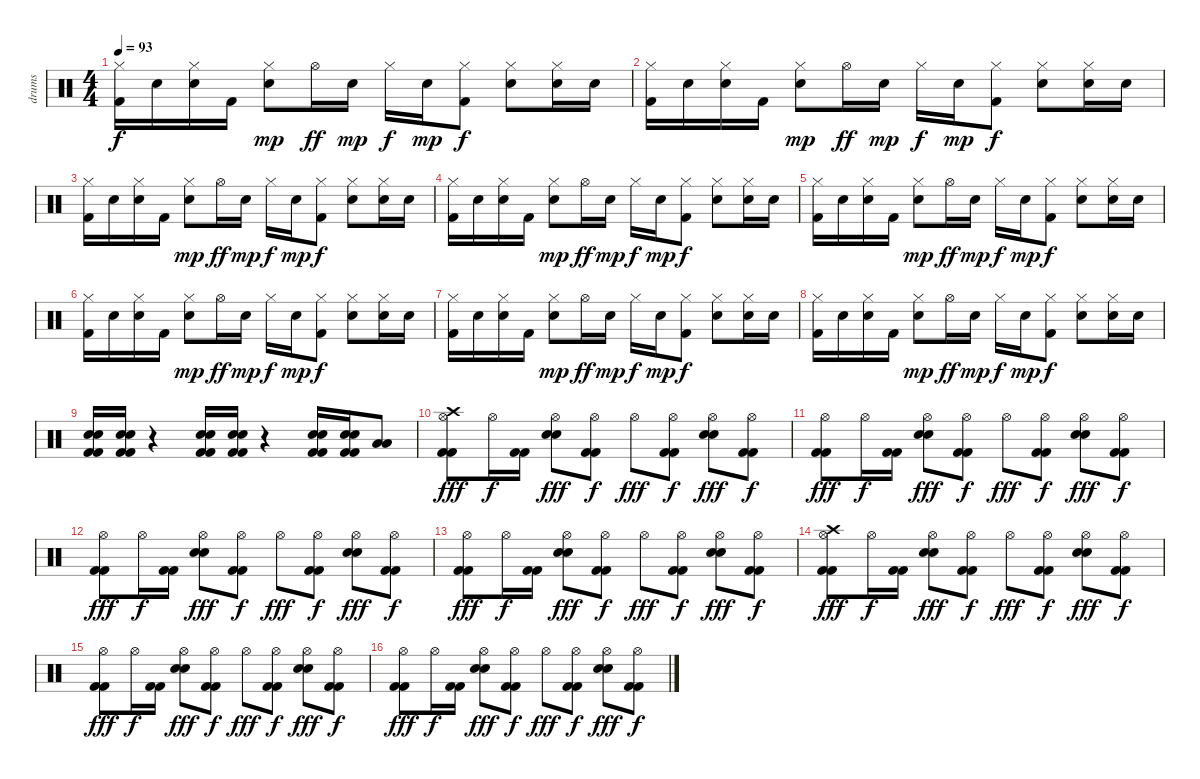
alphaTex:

\track ("drums" "drums") {instrument percussion}
\staff {score}
\articulation defaults
\ts (4 4)
\tempo 93
\clef neutral
\ks c
("Hi-Hat (closed)" "Kick (hit) 2").16{dy f} "Electric Snare (hit)".16 ("Hi-Hat (closed)" "Electric Snare (hit)").16 "Kick (hit) 2".16 ("Hi-Hat (closed)" "Electric Snare (hit)").8{dy mp} "Hi-Hat (open)".16{dy ff} "Electric Snare (hit)".16{dy mp} "Hi-Hat (closed)".16{dy f} "Electric Snare (hit)".16{dy mp} ("Hi-Hat (closed)" "Kick (hit) 2").8{dy f} ("Hi-Hat (closed)" "Electric Snare (hit)").8 ("Hi-Hat (closed)" "Electric Snare (hit)").16 "Electric Snare (hit)".16 |
("Hi-Hat (closed)" "Kick (hit) 2").16 "Electric Snare (hit)".16 ("Hi-Hat (closed)" "Electric Snare (hit)").16 "Kick (hit) 2".16 ("Hi-Hat (closed)" "Electric Snare (hit)").8{dy mp} "Hi-Hat (open)".16{dy ff} "Electric Snare (hit)".16{dy mp} "Hi-Hat (closed)".16{dy f} "Electric Snare (hit)".16{dy mp} ("Hi-Hat (closed)" "Kick (hit) 2").8{dy f} ("Hi-Hat (closed)" "Electric Snare (hit)").8 ("Hi-Hat (closed)" "Electric Snare (hit)").16 "Electric Snare (hit)".16 |
("Hi-Hat (closed)" "Kick (hit) 2").16 "Electric Snare (hit)".16 ("Hi-Hat (closed)" "Electric Snare (hit)").16 "Kick (hit) 2".16 ("Hi-Hat (closed)" "Electric Snare (hit)").8{dy mp} "Hi-Hat (open)".16{dy ff} "Electric Snare (hit)".16{dy mp} "Hi-Hat (closed)".16{dy f} "Electric Snare (hit)".16{dy mp} ("Hi-Hat (closed)" "Kick (hit) 2").8{dy f} ("Hi-Hat (closed)" "Electric Snare (hit)").8 ("Hi-Hat (closed)" "Electric Snare (hit)").16 "Electric Snare (hit)".16 |
("Hi-Hat (closed)" "Kick (hit) 2").16 "Electric Snare (hit)".16 ("Hi-Hat (closed)" "Electric Snare (hit)").16 "Kick (hit) 2".16 ("Hi-Hat (closed)" "Electric Snare (hit)").8{dy mp} "Hi-Hat (open)".16{dy ff} "Electric Snare (hit)".16{dy mp} "Hi-Hat (closed)".16{dy f} "Electric Snare (hit)".16{dy mp} ("Hi-Hat (closed)" "Kick (hit) 2").8{dy f} ("Hi-Hat (closed)" "Electric Snare (hit)").8 ("Hi-Hat (closed)" "Electric Snare (hit)").16 "Electric Snare (hit)".16 |
("Hi-Hat (closed)" "Kick (hit) 2").16 "Electric Snare (hit)".16 ("Hi-Hat (closed)" "Electric Snare (hit)").16 "Kick (hit) 2".16 ("Hi-Hat (closed)" "Electric Snare (hit)").8{dy mp} "Hi-Hat (open)".16{dy ff} "Electric Snare (hit)".16{dy mp} "Hi-Hat (closed)".16{dy f} "Electric Snare (hit)".16{dy mp} ("Hi-Hat (closed)" "Kick (hit) 2").8{dy f} ("Hi-Hat (closed)" "Electric Snare (hit)").8 ("Hi-Hat (closed)" "Electric Snare (hit)").16 "Electric Snare (hit)".16 |
("Hi-Hat (closed)" "Kick (hit) 2").16 "Electric Snare (hit)".16 ("Hi-Hat (closed)" "Electric Snare (hit)").16 "Kick (hit) 2".16 ("Hi-Hat (closed)" "Electric Snare (hit)").8{dy mp} "Hi-Hat (open)".16{dy ff} "Electric Snare (hit)".16{dy mp} "Hi-Hat (closed)".16{dy f} "Electric Snare (hit)".16{dy mp} ("Hi-Hat (closed)" "Kick (hit) 2").8{dy f} ("Hi-Hat (closed)" "Electric Snare (hit)").8 ("Hi-Hat (closed)" "Electric Snare (hit)").16 "Electric Snare (hit)".16 |
("Hi-Hat (closed)" "Kick (hit) 2").16 "Electric Snare (hit)".16 ("Hi-Hat (closed)" "Electric Snare (hit)").16 "Kick (hit) 2".16 ("Hi-Hat (closed)" "Electric Snare (hit)").8{dy mp} "Hi-Hat (open)".16{dy ff} "Electric Snare (hit)".16{dy mp} "Hi-Hat (closed)".16{dy f} "Electric Snare (hit)".16{dy mp} ("Hi-Hat (closed)" "Kick (hit) 2").8{dy f} ("Hi-Hat (closed)" "Electric Snare (hit)").8 ("Hi-Hat (closed)" "Electric Snare (hit)").16 "Electric Snare (hit)".16 |
("Hi-Hat (closed)" "Kick (hit) 2").16 "Electric Snare (hit)".16 ("Hi-Hat (closed)" "Electric Snare (hit)").16 "Kick (hit) 2".16 ("Hi-Hat (closed)" "Electric Snare (hit)").8{dy mp} "Hi-Hat (open)".16{dy ff} "Electric Snare (hit)".16{dy mp} "Hi-Hat (closed)".16{dy f} "Electric Snare (hit)".16{dy mp} ("Hi-Hat (closed)" "Kick (hit) 2").8{dy f} ("Hi-Hat (closed)" "Electric Snare (hit)").8 ("Hi-Hat (closed)" "Electric Snare (hit)").16 "Electric Snare (hit)".16 |
("Electric Snare (hit)" "Electric Snare (hit)" "Kick (hit) 2" "Kick (hit) 2").16 ("Electric Snare (hit)" "Electric Snare (hit)" "Kick (hit) 2" "Kick (hit) 2").16 r.4 ("Electric Snare (hit)" "Electric Snare (hit)" "Kick (hit) 2" "Kick (hit) 2").16 ("Electric Snare (hit)" "Electric Snare (hit)" "Kick (hit) 2" "Kick (hit) 2").16 r.4 ("Electric Snare (hit)" "Electric Snare (hit)" "Kick (hit) 2" "Kick (hit) 2").16 ("Electric Snare (hit)" "Electric Snare (hit)" "Kick (hit) 2" "Kick (hit) 2").16 ("Low Floor Tom (hit)" "Low Floor Tom (hit)").8 |
("Crash high (hit)" "Hi-Hat (open)" "Kick (hit) 2" "Kick (hit) 2").8{dy fff} "Hi-Hat (open)".16{dy f} ("Kick (hit) 2" "Kick (hit) 2").16 ("Electric Snare (hit)" "Electric Snare (hit)" "Hi-Hat (open)").8{dy fff} ("Hi-Hat (open)" "Kick (hit) 2" "Kick (hit) 2").8{dy f} "Hi-Hat (open)".8{dy fff} ("Hi-Hat (open)" "Kick (hit) 2" "Kick (hit) 2").8{dy f} ("Electric Snare (hit)" "Electric Snare (hit)" "Hi-Hat (open)").8{dy fff} ("Hi-Hat (open)" "Kick (hit) 2" "Kick (hit) 2").8{dy f} |
("Hi-Hat (open)" "Kick (hit) 2" "Kick (hit) 2").8{dy fff} "Hi-Hat (open)".16{dy f} ("Kick (hit) 2" "Kick (hit) 2").16 ("Electric Snare (hit)" "Electric Snare (hit)" "Hi-Hat (open)").8{dy fff} ("Hi-Hat (open)" "Kick (hit) 2" "Kick (hit) 2").8{dy f} "Hi-Hat (open)".8{dy fff} ("Hi-Hat (open)" "Kick (hit) 2" "Kick (hit) 2").8{dy f} ("Electric Snare (hit)" "Electric Snare (hit)" "Hi-Hat (open)").8{dy fff} ("Hi-Hat (open)" "Kick (hit) 2" "Kick (hit) 2").8{dy f} |
("Hi-Hat (open)" "Kick (hit) 2" "Kick (hit) 2").8{dy fff} "Hi-Hat (open)".16{dy f} ("Kick (hit) 2" "Kick (hit) 2").16 ("Electric Snare (hit)" "Electric Snare (hit)" "Hi-Hat (open)").8{dy fff} ("Hi-Hat (open)" "Kick (hit) 2" "Kick (hit) 2").8{dy f} "Hi-Hat (open)".8{dy fff} ("Hi-Hat (open)" "Kick (hit) 2" "Kick (hit) 2").8{dy f} ("Electric Snare (hit)" "Electric Snare (hit)" "Hi-Hat (open)").8{dy fff} ("Hi-Hat (open)" "Kick (hit) 2" "Kick (hit) 2").8{dy f} |
("Hi-Hat (open)" "Kick (hit) 2" "Kick (hit) 2").8{dy fff} "Hi-Hat (open)".16{dy f} ("Kick (hit) 2" "Kick (hit) 2").16 ("Electric Snare (hit)" "Electric Snare (hit)" "Hi-Hat (open)").8{dy fff} ("Hi-Hat (open)" "Kick (hit) 2" "Kick (hit) 2").8{dy f} "Hi-Hat (open)".8{dy fff} ("Hi-Hat (open)" "Kick (hit) 2" "Kick (hit) 2").8{dy f} ("Electric Snare (hit)" "Electric Snare (hit)" "Hi-Hat (open)").8{dy fff} ("Hi-Hat (open)" "Kick (hit) 2" "Kick (hit) 2").8{dy f} |
("Crash high (hit)" "Hi-Hat (open)" "Kick (hit) 2" "Kick (hit) 2").8{dy fff} "Hi-Hat (open)".16{dy f} ("Kick (hit) 2" "Kick (hit) 2").16 ("Electric Snare (hit)" "Electric Snare (hit)" "Hi-Hat (open)").8{dy fff} ("Hi-Hat (open)" "Kick (hit) 2" "Kick (hit) 2").8{dy f} "Hi-Hat (open)".8{dy fff} ("Hi-Hat (open)" "Kick (hit) 2" "Kick (hit) 2").8{dy f} ("Electric Snare (hit)" "Electric Snare (hit)" "Hi-Hat (open)").8{dy fff} ("Hi-Hat (open)" "Kick (hit) 2" "Kick (hit) 2").8{dy f} |
("Hi-Hat (open)" "Kick (hit) 2" "Kick (hit) 2").8{dy fff} "Hi-Hat (open)".16{dy f} ("Kick (hit) 2" "Kick (hit) 2").16 ("Electric Snare (hit)" "Electric Snare (hit)" "Hi-Hat (open)").8{dy fff} ("Hi-Hat (open)" "Kick (hit) 2" "Kick (hit) 2").8{dy f} "Hi-Hat (open)".8{dy fff} ("Hi-Hat (open)" "Kick (hit) 2" "Kick (hit) 2").8{dy f} ("Electric Snare (hit)" "Electric Snare (hit)" "Hi-Hat (open)").8{dy fff} ("Hi-Hat (open)" "Kick (hit) 2" "Kick (hit) 2").8{dy f} |
("Hi-Hat (open)" "Kick (hit) 2" "Kick (hit) 2").8{dy fff} "Hi-Hat (open)".16{dy f} ("Kick (hit) 2" "Kick (hit) 2").16 ("Electric Snare (hit)" "Electric Snare (hit)" "Hi-Hat (open)").8{dy fff} ("Hi-Hat (open)" "Kick (hit) 2" "Kick (hit) 2").8{dy f} "Hi-Hat (open)".8{dy fff} ("Hi-Hat (open)" "Kick (hit) 2" "Kick (hit) 2").8{dy f} ("Electric Snare (hit)" "Electric Snare (hit)" "Hi-Hat (open)").8{dy fff} ("Hi-Hat (open)" "Kick (hit) 2" "Kick (hit) 2").8{dy f}
